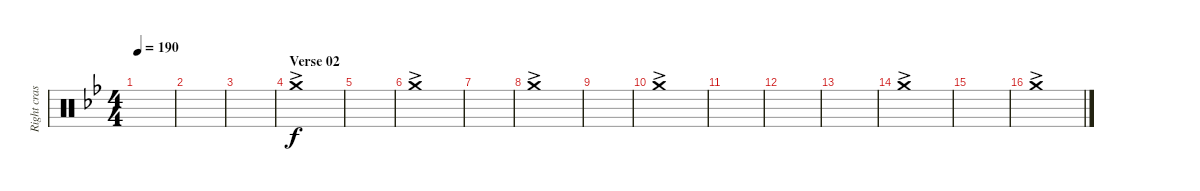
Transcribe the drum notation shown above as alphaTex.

\track ("Right crash" "Right cras") {instrument percussion}
\staff {score}
\articulation defaults
\ts (4 4)
\tempo 190
\clef neutral
\ks bb
|
|
|
\section ("" "Verse 02")
"Crash medium (hit)"{ac}.1 |
|
"Crash medium (hit)"{ac}.1 |
|
"Crash medium (hit)"{ac}.1 |
|
"Crash medium (hit)"{ac}.1 |
|
|
|
"Crash medium (hit)"{ac}.1 |
|
"Crash medium (hit)"{ac}.1
